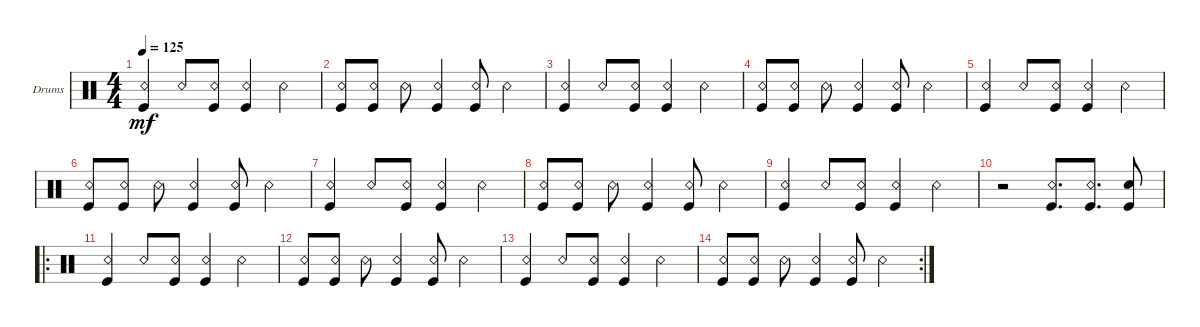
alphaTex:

\defaultSystemsLayout 4
\bracketExtendMode groupsimilarinstruments
\firstSystemTrackNameOrientation horizontal
\otherSystemsTrackNameOrientation horizontal
\track ("Drumkit" "Drums") {instrument percussion}
\staff {score}
\articulation defaults
\ts (4 4)
\tempo 125
\clef neutral
\scale
0.333333
\ks c
("Kick (hit)" "Snare (rim shot)").4{dy mf} "Snare (rim shot)".8 ("Kick (hit)" "Snare (rim shot)").8 ("Kick (hit)" "Snare (rim shot)").4 "Snare (rim shot)".4 |
\scale
0.333333 ("Snare (rim shot)" "Kick (hit)").8 ("Snare (rim shot)" "Kick (hit)").8 "Snare (rim shot)".8 ("Snare (rim shot)" "Kick (hit)").4 ("Snare (rim shot)" "Kick (hit)").8 "Snare (rim shot)".4 |
\scale
0.333333 ("Kick (hit)" "Snare (rim shot)").4 "Snare (rim shot)".8 ("Kick (hit)" "Snare (rim shot)").8 ("Kick (hit)" "Snare (rim shot)").4 "Snare (rim shot)".4 |
\scale
0.333333 ("Snare (rim shot)" "Kick (hit)").8 ("Snare (rim shot)" "Kick (hit)").8 "Snare (rim shot)".8 ("Snare (rim shot)" "Kick (hit)").4 ("Snare (rim shot)" "Kick (hit)").8 "Snare (rim shot)".4 |
\scale
0.333333 ("Kick (hit)" "Snare (rim shot)").4 "Snare (rim shot)".8 ("Kick (hit)" "Snare (rim shot)").8 ("Kick (hit)" "Snare (rim shot)").4 "Snare (rim shot)".4 |
\scale
0.333333 ("Snare (rim shot)" "Kick (hit)").8 ("Snare (rim shot)" "Kick (hit)").8 "Snare (rim shot)".8 ("Snare (rim shot)" "Kick (hit)").4 ("Snare (rim shot)" "Kick (hit)").8 "Snare (rim shot)".4 |
\scale
0.333333 ("Kick (hit)" "Snare (rim shot)").4 "Snare (rim shot)".8 ("Kick (hit)" "Snare (rim shot)").8 ("Kick (hit)" "Snare (rim shot)").4 "Snare (rim shot)".4 |
\scale
0.333333 ("Snare (rim shot)" "Kick (hit)").8 ("Snare (rim shot)" "Kick (hit)").8 "Snare (rim shot)".8 ("Snare (rim shot)" "Kick (hit)").4 ("Snare (rim shot)" "Kick (hit)").8 "Snare (rim shot)".4 |
\scale
0.333333 ("Kick (hit)" "Snare (rim shot)").4 "Snare (rim shot)".8 ("Kick (hit)" "Snare (rim shot)").8 ("Kick (hit)" "Snare (rim shot)").4 "Snare (rim shot)".4 |
\scale
0.311475 r.2 ("Snare (rim shot)" "Kick (hit)").8{d} ("Snare (rim shot)" "Kick (hit)").8{d} ("Kick (hit)" "Snare (hit) 2").8 |
\ro
\scale
0.377049 ("Kick (hit)" "Snare (rim shot)").4 "Snare (rim shot)".8 ("Kick (hit)" "Snare (rim shot)").8 ("Kick (hit)" "Snare (rim shot)").4 "Snare (rim shot)".4 |
\scale
0.311475 ("Snare (rim shot)" "Kick (hit)").8 ("Snare (rim shot)" "Kick (hit)").8 "Snare (rim shot)".8 ("Snare (rim shot)" "Kick (hit)").4 ("Snare (rim shot)" "Kick (hit)").8 "Snare (rim shot)".4 |
\scale
0.322034 ("Kick (hit)" "Snare (rim shot)").4 "Snare (rim shot)".8 ("Kick (hit)" "Snare (rim shot)").8 ("Kick (hit)" "Snare (rim shot)").4 "Snare (rim shot)".4 |
\rc 2
\scale
0.355932 ("Snare (rim shot)" "Kick (hit)").8 ("Snare (rim shot)" "Kick (hit)").8 "Snare (rim shot)".8 ("Snare (rim shot)" "Kick (hit)").4 ("Snare (rim shot)" "Kick (hit)").8 "Snare (rim shot)".4 |
\scale
0.322034 |
\scale
0.333333
